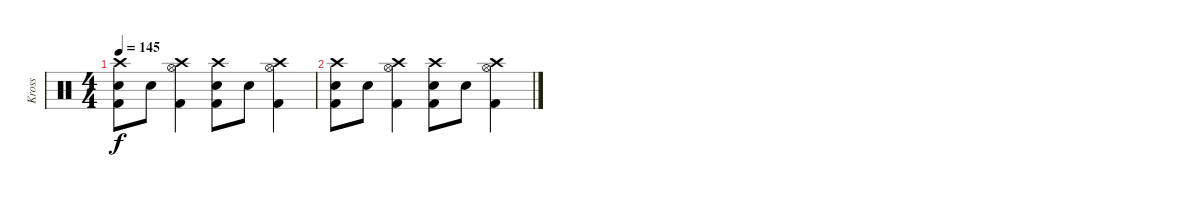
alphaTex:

\track ("Kross" "Kross") {instrument percussion}
\staff {score}
\articulation defaults
\ts (4 4)
\tempo 145
\clef neutral
\ks c
("Crash high (hit)" "Electric Snare (hit)" "Kick (hit) 2").8{dy f volume 6} "Electric Snare (hit)".8 ("Crash high (hit)" "Hi-Hat (open)" "Kick (hit) 2").4 ("Crash high (hit)" "Electric Snare (hit)" "Kick (hit) 2").8 "Electric Snare (hit)".8 ("Crash high (hit)" "Hi-Hat (open)" "Kick (hit) 2").4 |
("Crash high (hit)" "Electric Snare (hit)" "Kick (hit) 2").8 "Electric Snare (hit)".8 ("Crash high (hit)" "Hi-Hat (open)" "Kick (hit) 2").4 ("Crash high (hit)" "Electric Snare (hit)" "Kick (hit) 2").8 "Electric Snare (hit)".8 ("Crash high (hit)" "Hi-Hat (open)" "Kick (hit) 2").4
